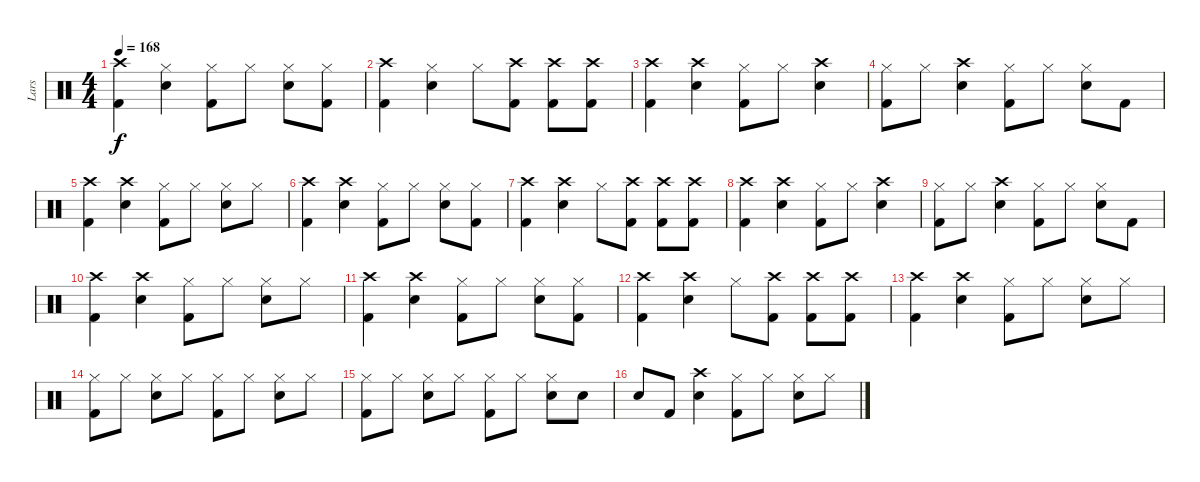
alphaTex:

\track ("Lars" "Lars") {instrument percussion}
\staff {score}
\articulation defaults
\ts (4 4)
\tempo 168
\clef neutral
\ks c
("Crash high (hit)" "Kick (hit) 2").4{dy f} ("Hi-Hat (closed)" "Snare (hit) 2").4 ("Hi-Hat (closed)" "Kick (hit) 2").8 "Hi-Hat (closed)".8 ("Hi-Hat (closed)" "Snare (hit) 2").8 ("Hi-Hat (closed)" "Kick (hit) 2").8 |
("Crash high (hit)" "Kick (hit) 2").4 ("Hi-Hat (closed)" "Snare (hit) 2").4 "Hi-Hat (closed)".8 ("Crash high (hit)" "Kick (hit) 2").8 ("Crash high (hit)" "Kick (hit) 2").8 ("Crash high (hit)" "Kick (hit) 2").8 |
("Crash high (hit)" "Kick (hit) 2").4 ("Crash high (hit)" "Snare (hit) 2").4 ("Hi-Hat (closed)" "Kick (hit) 2").8 "Hi-Hat (closed)".8 ("Crash high (hit)" "Snare (hit) 2").4 |
("Hi-Hat (closed)" "Kick (hit) 2").8 "Hi-Hat (closed)".8 ("Crash high (hit)" "Snare (hit) 2").4 ("Hi-Hat (closed)" "Kick (hit) 2").8 "Hi-Hat (closed)".8 ("Hi-Hat (closed)" "Snare (hit) 2").8 "Kick (hit) 2".8 |
("Crash high (hit)" "Kick (hit) 2").4 ("Crash high (hit)" "Snare (hit) 2").4 ("Hi-Hat (closed)" "Kick (hit) 2").8 "Hi-Hat (closed)".8 ("Hi-Hat (closed)" "Snare (hit) 2").8 "Hi-Hat (closed)".8 |
("Crash high (hit)" "Kick (hit) 2").4 ("Crash high (hit)" "Snare (hit) 2").4 ("Hi-Hat (closed)" "Kick (hit) 2").8 "Hi-Hat (closed)".8 ("Hi-Hat (closed)" "Snare (hit) 2").8 ("Hi-Hat (closed)" "Kick (hit) 2").8 |
("Crash high (hit)" "Kick (hit) 2").4 ("Crash high (hit)" "Snare (hit) 2").4 "Hi-Hat (closed)".8 ("Crash high (hit)" "Kick (hit) 2").8 ("Crash high (hit)" "Kick (hit) 2").8 ("Crash high (hit)" "Kick (hit) 2").8 |
("Crash high (hit)" "Kick (hit) 2").4 ("Crash high (hit)" "Snare (hit) 2").4 ("Hi-Hat (closed)" "Kick (hit) 2").8 "Hi-Hat (closed)".8 ("Crash high (hit)" "Snare (hit) 2").4 |
("Hi-Hat (closed)" "Kick (hit) 2").8 "Hi-Hat (closed)".8 ("Crash high (hit)" "Snare (hit) 2").4 ("Hi-Hat (closed)" "Kick (hit) 2").8 "Hi-Hat (closed)".8 ("Hi-Hat (closed)" "Snare (hit) 2").8 "Kick (hit) 2".8 |
("Crash high (hit)" "Kick (hit) 2").4 ("Crash high (hit)" "Snare (hit) 2").4 ("Hi-Hat (closed)" "Kick (hit) 2").8 "Hi-Hat (closed)".8 ("Hi-Hat (closed)" "Snare (hit) 2").8 "Hi-Hat (closed)".8 |
("Crash high (hit)" "Kick (hit) 2").4 ("Crash high (hit)" "Snare (hit) 2").4 ("Hi-Hat (closed)" "Kick (hit) 2").8 "Hi-Hat (closed)".8 ("Hi-Hat (closed)" "Snare (hit) 2").8 ("Hi-Hat (closed)" "Kick (hit) 2").8 |
("Crash high (hit)" "Kick (hit) 2").4 ("Crash high (hit)" "Snare (hit) 2").4 "Hi-Hat (closed)".8 ("Crash high (hit)" "Kick (hit) 2").8 ("Crash high (hit)" "Kick (hit) 2").8 ("Crash high (hit)" "Kick (hit) 2").8 |
("Crash high (hit)" "Kick (hit) 2").4 ("Crash high (hit)" "Snare (hit) 2").4 ("Hi-Hat (closed)" "Kick (hit) 2").8 "Hi-Hat (closed)".8 ("Hi-Hat (closed)" "Snare (hit) 2").8 "Hi-Hat (closed)".8 |
("Hi-Hat (closed)" "Kick (hit) 2").8 "Hi-Hat (closed)".8 ("Hi-Hat (closed)" "Snare (hit) 2").8 "Hi-Hat (closed)".8 ("Hi-Hat (closed)" "Kick (hit) 2").8 "Hi-Hat (closed)".8 ("Hi-Hat (closed)" "Snare (hit) 2").8 "Hi-Hat (closed)".8 |
("Hi-Hat (closed)" "Kick (hit) 2").8 "Hi-Hat (closed)".8 ("Hi-Hat (closed)" "Snare (hit) 2").8 "Hi-Hat (closed)".8 ("Hi-Hat (closed)" "Kick (hit) 2").8 "Hi-Hat (closed)".8 ("Hi-Hat (closed)" "Snare (hit) 2").8 "Snare (hit) 2".8 |
"Snare (hit) 2".8 "Kick (hit) 2".8 ("Crash high (hit)" "Snare (hit) 2").4 ("Hi-Hat (closed)" "Kick (hit) 2").8 "Hi-Hat (closed)".8 ("Hi-Hat (closed)" "Snare (hit) 2").8 "Hi-Hat (closed)".8
